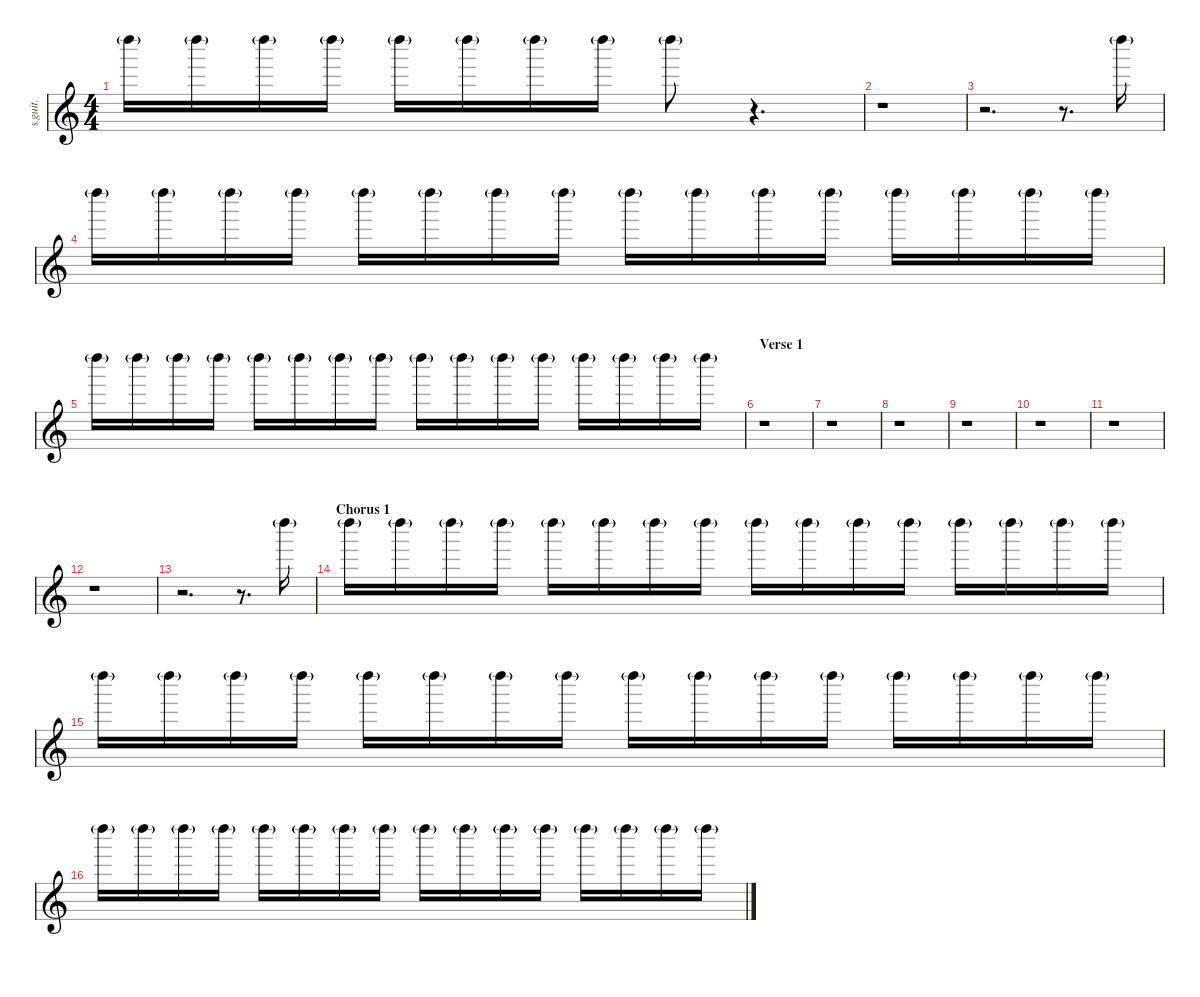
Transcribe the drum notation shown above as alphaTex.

\defaultSystemsLayout 4
\hideDynamics
\bracketExtendMode nobrackets
\track ("Shaker" "s.guit.") {instrument percussion}
\staff {score}
\articulation defaults
\ts (4 4)
\tempo (88 hide)
\clef g2
\ks c "Left Maraca (hit)"{g}.16{lyrics (0 "") lyrics (1 "") lyrics (2 "") lyrics (3 "") lyrics (4 "") dy mp} "Left Maraca (hit)"{g}.16{lyrics (0 "") lyrics (1 "") lyrics (2 "") lyrics (3 "") lyrics (4 "") dy p} "Left Maraca (hit)"{g}.16{lyrics (0 "") lyrics (1 "") lyrics (2 "") lyrics (3 "") lyrics (4 "")} "Left Maraca (hit)"{g}.16{lyrics (0 "") lyrics (1 "") lyrics (2 "") lyrics (3 "") lyrics (4 "")} "Left Maraca (hit)"{g}.16{lyrics (0 "") lyrics (1 "") lyrics (2 "") lyrics (3 "") lyrics (4 "") dy mp} "Left Maraca (hit)"{g}.16{lyrics (0 "") lyrics (1 "") lyrics (2 "") lyrics (3 "") lyrics (4 "") dy p} "Left Maraca (hit)"{g}.16{lyrics (0 "") lyrics (1 "") lyrics (2 "") lyrics (3 "") lyrics (4 "")} "Left Maraca (hit)"{g}.16{lyrics (0 "") lyrics (1 "") lyrics (2 "") lyrics (3 "") lyrics (4 "")} "Left Maraca (hit)"{g}.8{lyrics (0 "") lyrics (1 "") lyrics (2 "") lyrics (3 "") lyrics (4 "") dy mp}
r.4{d} |
\tempo (89 hide)
r.1 |
\tempo (91 hide)
r.2{d} r.8{d} "Left Maraca (hit)"{g}.16{lyrics (0 "") lyrics (1 "") lyrics (2 "") lyrics (3 "") lyrics (4 "") dy p} |
\tempo (88 hide)
"Left Maraca (hit)"{g}.16{lyrics (0 "") lyrics (1 "") lyrics (2 "") lyrics (3 "") lyrics (4 "") dy mp} "Left Maraca (hit)"{g}.16{lyrics (0 "") lyrics (1 "") lyrics (2 "") lyrics (3 "") lyrics (4 "") dy p} "Left Maraca (hit)"{g}.16{lyrics (0 "") lyrics (1 "") lyrics (2 "") lyrics (3 "") lyrics (4 "")} "Left Maraca (hit)"{g}.16{lyrics (0 "") lyrics (1 "") lyrics (2 "") lyrics (3 "") lyrics (4 "")} "Left Maraca (hit)"{g}.16{lyrics (0 "") lyrics (1 "") lyrics (2 "") lyrics (3 "") lyrics (4 "") dy mp} "Left Maraca (hit)"{g}.16{lyrics (0 "") lyrics (1 "") lyrics (2 "") lyrics (3 "") lyrics (4 "") dy p} "Left Maraca (hit)"{g}.16{lyrics (0 "") lyrics (1 "") lyrics (2 "") lyrics (3 "") lyrics (4 "")} "Left Maraca (hit)"{g}.16{lyrics (0 "") lyrics (1 "") lyrics (2 "") lyrics (3 "") lyrics (4 "")} "Left Maraca (hit)"{g}.16{lyrics (0 "") lyrics (1 "") lyrics (2 "") lyrics (3 "") lyrics (4 "") dy mp} "Left Maraca (hit)"{g}.16{lyrics (0 "") lyrics (1 "") lyrics (2 "") lyrics (3 "") lyrics (4 "") dy p} "Left Maraca (hit)"{g}.16{lyrics (0 "") lyrics (1 "") lyrics (2 "") lyrics (3 "") lyrics (4 "")} "Left Maraca (hit)"{g}.16{lyrics (0 "") lyrics (1 "") lyrics (2 "") lyrics (3 "") lyrics (4 "")} "Left Maraca (hit)"{g}.16{lyrics (0 "") lyrics (1 "") lyrics (2 "") lyrics (3 "") lyrics (4 "") dy mp} "Left Maraca (hit)"{g}.16{lyrics (0 "") lyrics (1 "") lyrics (2 "") lyrics (3 "") lyrics (4 "") dy p} "Left Maraca (hit)"{g}.16{lyrics (0 "") lyrics (1 "") lyrics (2 "") lyrics (3 "") lyrics (4 "")} "Left Maraca (hit)"{g}.16{lyrics (0 "") lyrics (1 "") lyrics (2 "") lyrics (3 "") lyrics (4 "")} |
\tempo (90 hide)
"Left Maraca (hit)"{g}.16{lyrics (0 "") lyrics (1 "") lyrics (2 "") lyrics (3 "") lyrics (4 "") dy mp} "Left Maraca (hit)"{g}.16{lyrics (0 "") lyrics (1 "") lyrics (2 "") lyrics (3 "") lyrics (4 "") dy p} "Left Maraca (hit)"{g}.16{lyrics (0 "") lyrics (1 "") lyrics (2 "") lyrics (3 "") lyrics (4 "")} "Left Maraca (hit)"{g}.16{lyrics (0 "") lyrics (1 "") lyrics (2 "") lyrics (3 "") lyrics (4 "")} "Left Maraca (hit)"{g}.16{lyrics (0 "") lyrics (1 "") lyrics (2 "") lyrics (3 "") lyrics (4 "") dy mp} "Left Maraca (hit)"{g}.16{lyrics (0 "") lyrics (1 "") lyrics (2 "") lyrics (3 "") lyrics (4 "") dy p} "Left Maraca (hit)"{g}.16{lyrics (0 "") lyrics (1 "") lyrics (2 "") lyrics (3 "") lyrics (4 "")} "Left Maraca (hit)"{g}.16{lyrics (0 "") lyrics (1 "") lyrics (2 "") lyrics (3 "") lyrics (4 "")} "Left Maraca (hit)"{g}.16{lyrics (0 "") lyrics (1 "") lyrics (2 "") lyrics (3 "") lyrics (4 "") dy mp} "Left Maraca (hit)"{g}.16{lyrics (0 "") lyrics (1 "") lyrics (2 "") lyrics (3 "") lyrics (4 "") dy p} "Left Maraca (hit)"{g}.16{lyrics (0 "") lyrics (1 "") lyrics (2 "") lyrics (3 "") lyrics (4 "")} "Left Maraca (hit)"{g}.16{lyrics (0 "") lyrics (1 "") lyrics (2 "") lyrics (3 "") lyrics (4 "")} "Left Maraca (hit)"{g}.16{lyrics (0 "") lyrics (1 "") lyrics (2 "") lyrics (3 "") lyrics (4 "") dy mp} "Left Maraca (hit)"{g}.16{lyrics (0 "") lyrics (1 "") lyrics (2 "") lyrics (3 "") lyrics (4 "") dy p} "Left Maraca (hit)"{g}.16{lyrics (0 "") lyrics (1 "") lyrics (2 "") lyrics (3 "") lyrics (4 "")} "Left Maraca (hit)"{g}.16{lyrics (0 "") lyrics (1 "") lyrics (2 "") lyrics (3 "") lyrics (4 "")} |
\section ("" "Verse 1")
\tempo (88 hide)
r.1 |
\tempo (89 hide)
r.1 |
\tempo (90 hide)
r.1 |
\tempo (89 hide)
r.1 |
\tempo (90 hide)
r.1 |
\tempo (89 hide)
r.1 |
\tempo (88 hide)
r.1 |
\tempo (90 hide)
r.2{d} r.8{d} "Left Maraca (hit)"{g}.16{lyrics (0 "") lyrics (1 "") lyrics (2 "") lyrics (3 "") lyrics (4 "")} |
\section ("" "Chorus 1")
\tempo (89 hide)
"Left Maraca (hit)"{g}.16{lyrics (0 "") lyrics (1 "") lyrics (2 "") lyrics (3 "") lyrics (4 "") dy mp} "Left Maraca (hit)"{g}.16{lyrics (0 "") lyrics (1 "") lyrics (2 "") lyrics (3 "") lyrics (4 "") dy p} "Left Maraca (hit)"{g}.16{lyrics (0 "") lyrics (1 "") lyrics (2 "") lyrics (3 "") lyrics (4 "")} "Left Maraca (hit)"{g}.16{lyrics (0 "") lyrics (1 "") lyrics (2 "") lyrics (3 "") lyrics (4 "")} "Left Maraca (hit)"{g}.16{lyrics (0 "") lyrics (1 "") lyrics (2 "") lyrics (3 "") lyrics (4 "") dy mp} "Left Maraca (hit)"{g}.16{lyrics (0 "") lyrics (1 "") lyrics (2 "") lyrics (3 "") lyrics (4 "") dy p} "Left Maraca (hit)"{g}.16{lyrics (0 "") lyrics (1 "") lyrics (2 "") lyrics (3 "") lyrics (4 "")} "Left Maraca (hit)"{g}.16{lyrics (0 "") lyrics (1 "") lyrics (2 "") lyrics (3 "") lyrics (4 "")} "Left Maraca (hit)"{g}.16{lyrics (0 "") lyrics (1 "") lyrics (2 "") lyrics (3 "") lyrics (4 "") dy mp} "Left Maraca (hit)"{g}.16{lyrics (0 "") lyrics (1 "") lyrics (2 "") lyrics (3 "") lyrics (4 "") dy p} "Left Maraca (hit)"{g}.16{lyrics (0 "") lyrics (1 "") lyrics (2 "") lyrics (3 "") lyrics (4 "")} "Left Maraca (hit)"{g}.16{lyrics (0 "") lyrics (1 "") lyrics (2 "") lyrics (3 "") lyrics (4 "")} "Left Maraca (hit)"{g}.16{lyrics (0 "") lyrics (1 "") lyrics (2 "") lyrics (3 "") lyrics (4 "") dy mp} "Left Maraca (hit)"{g}.16{lyrics (0 "") lyrics (1 "") lyrics (2 "") lyrics (3 "") lyrics (4 "") dy p} "Left Maraca (hit)"{g}.16{lyrics (0 "") lyrics (1 "") lyrics (2 "") lyrics (3 "") lyrics (4 "")} "Left Maraca (hit)"{g}.16{lyrics (0 "") lyrics (1 "") lyrics (2 "") lyrics (3 "") lyrics (4 "")} |
\tempo (90 hide)
"Left Maraca (hit)"{g}.16{lyrics (0 "") lyrics (1 "") lyrics (2 "") lyrics (3 "") lyrics (4 "") dy mp} "Left Maraca (hit)"{g}.16{lyrics (0 "") lyrics (1 "") lyrics (2 "") lyrics (3 "") lyrics (4 "") dy p} "Left Maraca (hit)"{g}.16{lyrics (0 "") lyrics (1 "") lyrics (2 "") lyrics (3 "") lyrics (4 "")} "Left Maraca (hit)"{g}.16{lyrics (0 "") lyrics (1 "") lyrics (2 "") lyrics (3 "") lyrics (4 "")} "Left Maraca (hit)"{g}.16{lyrics (0 "") lyrics (1 "") lyrics (2 "") lyrics (3 "") lyrics (4 "") dy mp} "Left Maraca (hit)"{g}.16{lyrics (0 "") lyrics (1 "") lyrics (2 "") lyrics (3 "") lyrics (4 "") dy p} "Left Maraca (hit)"{g}.16{lyrics (0 "") lyrics (1 "") lyrics (2 "") lyrics (3 "") lyrics (4 "")} "Left Maraca (hit)"{g}.16{lyrics (0 "") lyrics (1 "") lyrics (2 "") lyrics (3 "") lyrics (4 "")} "Left Maraca (hit)"{g}.16{lyrics (0 "") lyrics (1 "") lyrics (2 "") lyrics (3 "") lyrics (4 "") dy mp} "Left Maraca (hit)"{g}.16{lyrics (0 "") lyrics (1 "") lyrics (2 "") lyrics (3 "") lyrics (4 "") dy p} "Left Maraca (hit)"{g}.16{lyrics (0 "") lyrics (1 "") lyrics (2 "") lyrics (3 "") lyrics (4 "")} "Left Maraca (hit)"{g}.16{lyrics (0 "") lyrics (1 "") lyrics (2 "") lyrics (3 "") lyrics (4 "")} "Left Maraca (hit)"{g}.16{lyrics (0 "") lyrics (1 "") lyrics (2 "") lyrics (3 "") lyrics (4 "") dy mp} "Left Maraca (hit)"{g}.16{lyrics (0 "") lyrics (1 "") lyrics (2 "") lyrics (3 "") lyrics (4 "") dy p} "Left Maraca (hit)"{g}.16{lyrics (0 "") lyrics (1 "") lyrics (2 "") lyrics (3 "") lyrics (4 "")} "Left Maraca (hit)"{g}.16{lyrics (0 "") lyrics (1 "") lyrics (2 "") lyrics (3 "") lyrics (4 "")} |
\tempo (89 hide)
"Left Maraca (hit)"{g}.16{lyrics (0 "") lyrics (1 "") lyrics (2 "") lyrics (3 "") lyrics (4 "") dy mp} "Left Maraca (hit)"{g}.16{lyrics (0 "") lyrics (1 "") lyrics (2 "") lyrics (3 "") lyrics (4 "") dy p} "Left Maraca (hit)"{g}.16{lyrics (0 "") lyrics (1 "") lyrics (2 "") lyrics (3 "") lyrics (4 "")} "Left Maraca (hit)"{g}.16{lyrics (0 "") lyrics (1 "") lyrics (2 "") lyrics (3 "") lyrics (4 "")} "Left Maraca (hit)"{g}.16{lyrics (0 "") lyrics (1 "") lyrics (2 "") lyrics (3 "") lyrics (4 "") dy mp} "Left Maraca (hit)"{g}.16{lyrics (0 "") lyrics (1 "") lyrics (2 "") lyrics (3 "") lyrics (4 "") dy p} "Left Maraca (hit)"{g}.16{lyrics (0 "") lyrics (1 "") lyrics (2 "") lyrics (3 "") lyrics (4 "")} "Left Maraca (hit)"{g}.16{lyrics (0 "") lyrics (1 "") lyrics (2 "") lyrics (3 "") lyrics (4 "")} "Left Maraca (hit)"{g}.16{lyrics (0 "") lyrics (1 "") lyrics (2 "") lyrics (3 "") lyrics (4 "") dy mp} "Left Maraca (hit)"{g}.16{lyrics (0 "") lyrics (1 "") lyrics (2 "") lyrics (3 "") lyrics (4 "") dy p} "Left Maraca (hit)"{g}.16{lyrics (0 "") lyrics (1 "") lyrics (2 "") lyrics (3 "") lyrics (4 "")} "Left Maraca (hit)"{g}.16{lyrics (0 "") lyrics (1 "") lyrics (2 "") lyrics (3 "") lyrics (4 "")} "Left Maraca (hit)"{g}.16{lyrics (0 "") lyrics (1 "") lyrics (2 "") lyrics (3 "") lyrics (4 "") dy mp} "Left Maraca (hit)"{g}.16{lyrics (0 "") lyrics (1 "") lyrics (2 "") lyrics (3 "") lyrics (4 "") dy p} "Left Maraca (hit)"{g}.16{lyrics (0 "") lyrics (1 "") lyrics (2 "") lyrics (3 "") lyrics (4 "")} "Left Maraca (hit)"{g}.16{lyrics (0 "") lyrics (1 "") lyrics (2 "") lyrics (3 "") lyrics (4 "")}
